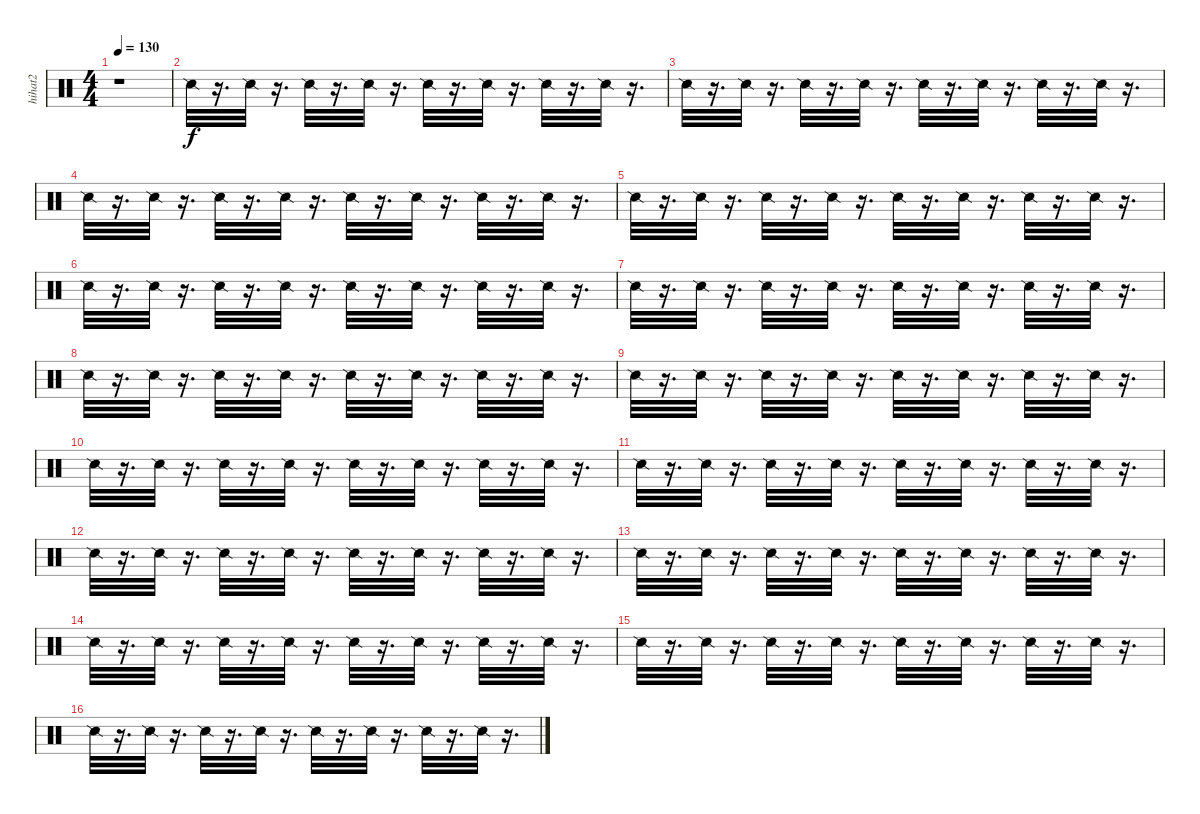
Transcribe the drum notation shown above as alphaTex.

\track ("hihat2              " "hihat2    ") {instrument percussion}
\staff {score}
\articulation defaults
\ts (4 4)
\tempo 130
\clef neutral
\ks c
r.1{dy f} |
"Snare (side stick) 2".32 r.16{d} "Snare (side stick) 2".32 r.16{d} "Snare (side stick) 2".32 r.16{d} "Snare (side stick) 2".32 r.16{d} "Snare (side stick) 2".32 r.16{d} "Snare (side stick) 2".32 r.16{d} "Snare (side stick) 2".32 r.16{d} "Snare (side stick) 2".32 r.16{d} |
"Snare (side stick) 2".32 r.16{d} "Snare (side stick) 2".32 r.16{d} "Snare (side stick) 2".32 r.16{d} "Snare (side stick) 2".32 r.16{d} "Snare (side stick) 2".32 r.16{d} "Snare (side stick) 2".32 r.16{d} "Snare (side stick) 2".32 r.16{d} "Snare (side stick) 2".32 r.16{d} |
"Snare (side stick) 2".32 r.16{d} "Snare (side stick) 2".32 r.16{d} "Snare (side stick) 2".32 r.16{d} "Snare (side stick) 2".32 r.16{d} "Snare (side stick) 2".32 r.16{d} "Snare (side stick) 2".32 r.16{d} "Snare (side stick) 2".32 r.16{d} "Snare (side stick) 2".32 r.16{d} |
"Snare (side stick) 2".32 r.16{d} "Snare (side stick) 2".32 r.16{d} "Snare (side stick) 2".32 r.16{d} "Snare (side stick) 2".32 r.16{d} "Snare (side stick) 2".32 r.16{d} "Snare (side stick) 2".32 r.16{d} "Snare (side stick) 2".32 r.16{d} "Snare (side stick) 2".32 r.16{d} |
"Snare (side stick) 2".32 r.16{d} "Snare (side stick) 2".32 r.16{d} "Snare (side stick) 2".32 r.16{d} "Snare (side stick) 2".32 r.16{d} "Snare (side stick) 2".32 r.16{d} "Snare (side stick) 2".32 r.16{d} "Snare (side stick) 2".32 r.16{d} "Snare (side stick) 2".32 r.16{d} |
"Snare (side stick) 2".32 r.16{d} "Snare (side stick) 2".32 r.16{d} "Snare (side stick) 2".32 r.16{d} "Snare (side stick) 2".32 r.16{d} "Snare (side stick) 2".32 r.16{d} "Snare (side stick) 2".32 r.16{d} "Snare (side stick) 2".32 r.16{d} "Snare (side stick) 2".32 r.16{d} |
"Snare (side stick) 2".32 r.16{d} "Snare (side stick) 2".32 r.16{d} "Snare (side stick) 2".32 r.16{d} "Snare (side stick) 2".32 r.16{d} "Snare (side stick) 2".32 r.16{d} "Snare (side stick) 2".32 r.16{d} "Snare (side stick) 2".32 r.16{d} "Snare (side stick) 2".32 r.16{d} |
"Snare (side stick) 2".32 r.16{d} "Snare (side stick) 2".32 r.16{d} "Snare (side stick) 2".32 r.16{d} "Snare (side stick) 2".32 r.16{d} "Snare (side stick) 2".32 r.16{d} "Snare (side stick) 2".32 r.16{d} "Snare (side stick) 2".32 r.16{d} "Snare (side stick) 2".32 r.16{d} |
"Snare (side stick) 2".32 r.16{d} "Snare (side stick) 2".32 r.16{d} "Snare (side stick) 2".32 r.16{d} "Snare (side stick) 2".32 r.16{d} "Snare (side stick) 2".32 r.16{d} "Snare (side stick) 2".32 r.16{d} "Snare (side stick) 2".32 r.16{d} "Snare (side stick) 2".32 r.16{d} |
"Snare (side stick) 2".32 r.16{d} "Snare (side stick) 2".32 r.16{d} "Snare (side stick) 2".32 r.16{d} "Snare (side stick) 2".32 r.16{d} "Snare (side stick) 2".32 r.16{d} "Snare (side stick) 2".32 r.16{d} "Snare (side stick) 2".32 r.16{d} "Snare (side stick) 2".32 r.16{d} |
"Snare (side stick) 2".32 r.16{d} "Snare (side stick) 2".32 r.16{d} "Snare (side stick) 2".32 r.16{d} "Snare (side stick) 2".32 r.16{d} "Snare (side stick) 2".32 r.16{d} "Snare (side stick) 2".32 r.16{d} "Snare (side stick) 2".32 r.16{d} "Snare (side stick) 2".32 r.16{d} |
"Snare (side stick) 2".32 r.16{d} "Snare (side stick) 2".32 r.16{d} "Snare (side stick) 2".32 r.16{d} "Snare (side stick) 2".32 r.16{d} "Snare (side stick) 2".32 r.16{d} "Snare (side stick) 2".32 r.16{d} "Snare (side stick) 2".32 r.16{d} "Snare (side stick) 2".32 r.16{d} |
"Snare (side stick) 2".32 r.16{d} "Snare (side stick) 2".32 r.16{d} "Snare (side stick) 2".32 r.16{d} "Snare (side stick) 2".32 r.16{d} "Snare (side stick) 2".32 r.16{d} "Snare (side stick) 2".32 r.16{d} "Snare (side stick) 2".32 r.16{d} "Snare (side stick) 2".32 r.16{d} |
"Snare (side stick) 2".32 r.16{d} "Snare (side stick) 2".32 r.16{d} "Snare (side stick) 2".32 r.16{d} "Snare (side stick) 2".32 r.16{d} "Snare (side stick) 2".32 r.16{d} "Snare (side stick) 2".32 r.16{d} "Snare (side stick) 2".32 r.16{d} "Snare (side stick) 2".32 r.16{d} |
"Snare (side stick) 2".32 r.16{d} "Snare (side stick) 2".32 r.16{d} "Snare (side stick) 2".32 r.16{d} "Snare (side stick) 2".32 r.16{d} "Snare (side stick) 2".32 r.16{d} "Snare (side stick) 2".32 r.16{d} "Snare (side stick) 2".32 r.16{d} "Snare (side stick) 2".32 r.16{d}
